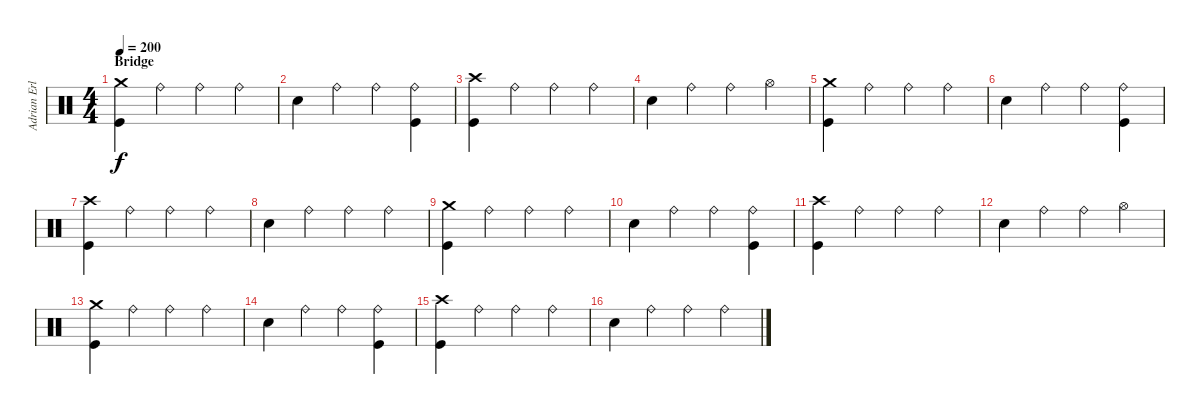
\track ("Adrian Erlandsson" "Adrian Erl") {instrument percussion}
\staff {score}
\articulation defaults
\ts (4 4)
\section ("" "Bridge")
\tempo 200
\clef neutral
\ks c
("Crash medium (hit)" "Kick (hit)").4{dy f} "Ride (bell)".4 "Ride (bell)".4 "Ride (bell)".4 |
"Electric Snare (hit)".4 "Ride (bell)".4 "Ride (bell)".4 ("Ride (bell)" "Kick (hit)").4 |
("Crash high (hit)" "Kick (hit)").4 "Ride (bell)".4 "Ride (bell)".4 "Ride (bell)".4 |
"Electric Snare (hit)".4 "Ride (bell)".4 "Ride (bell)".4 "Hi-Hat (open)".4 |
("Crash medium (hit)" "Kick (hit)").4 "Ride (bell)".4 "Ride (bell)".4 "Ride (bell)".4 |
"Electric Snare (hit)".4 "Ride (bell)".4 "Ride (bell)".4 ("Ride (bell)" "Kick (hit)").4 |
("Crash high (hit)" "Kick (hit)").4 "Ride (bell)".4 "Ride (bell)".4 "Ride (bell)".4 |
"Electric Snare (hit)".4 "Ride (bell)".4 "Ride (bell)".4 "Ride (bell)".4 |
("Crash medium (hit)" "Kick (hit)").4 "Ride (bell)".4 "Ride (bell)".4 "Ride (bell)".4 |
"Electric Snare (hit)".4 "Ride (bell)".4 "Ride (bell)".4 ("Ride (bell)" "Kick (hit)").4 |
("Crash high (hit)" "Kick (hit)").4 "Ride (bell)".4 "Ride (bell)".4 "Ride (bell)".4 |
"Electric Snare (hit)".4 "Ride (bell)".4 "Ride (bell)".4 "Hi-Hat (open)".4 |
("Crash medium (hit)" "Kick (hit)").4 "Ride (bell)".4 "Ride (bell)".4 "Ride (bell)".4 |
"Electric Snare (hit)".4 "Ride (bell)".4 "Ride (bell)".4 ("Ride (bell)" "Kick (hit)").4 |
("Crash high (hit)" "Kick (hit)").4 "Ride (bell)".4 "Ride (bell)".4 "Ride (bell)".4 |
"Electric Snare (hit)".4 "Ride (bell)".4 "Ride (bell)".4 "Ride (bell)".4
